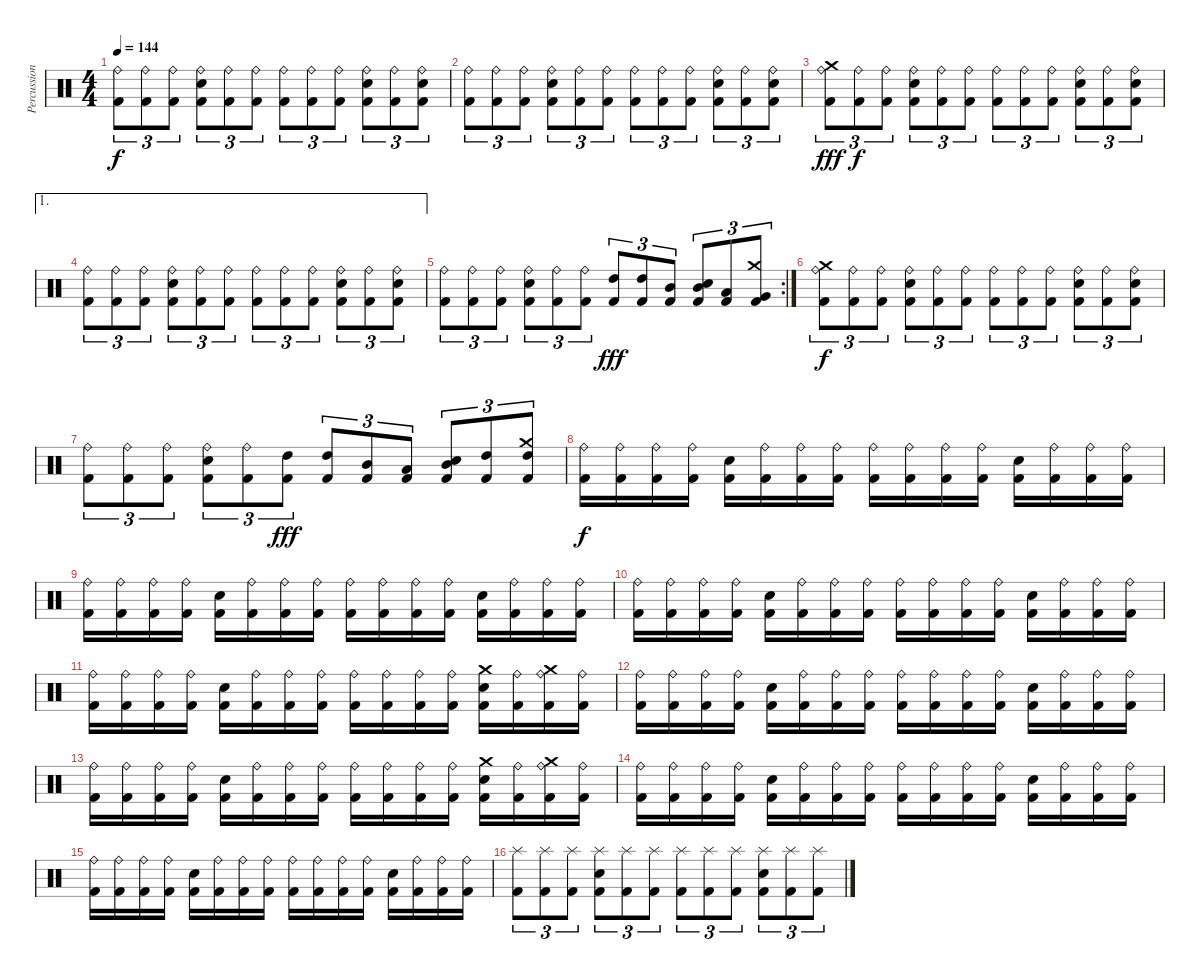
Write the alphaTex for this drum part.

\track ("Percussion -  Bard Faust" "Percussion") {instrument percussion}
\staff {score}
\articulation defaults
\ts (4 4)
\tempo 144
\clef neutral
\ks c
("Ride (bell)" "Kick (hit) 2").8{tu (3 2) dy f} ("Ride (bell)" "Kick (hit) 2").8{tu (3 2)} ("Ride (bell)" "Kick (hit) 2").8{tu (3 2)} ("Ride (bell)" "Electric Snare (hit)" "Kick (hit) 2").8{tu (3 2)} ("Ride (bell)" "Kick (hit) 2").8{tu (3 2)} ("Ride (bell)" "Kick (hit) 2").8{tu (3 2)} ("Ride (bell)" "Kick (hit) 2").8{tu (3 2)} ("Ride (bell)" "Kick (hit) 2").8{tu (3 2)} ("Ride (bell)" "Kick (hit) 2").8{tu (3 2)} ("Ride (bell)" "Electric Snare (hit)" "Kick (hit) 2").8{tu (3 2)} ("Ride (bell)" "Kick (hit) 2").8{tu (3 2)} ("Ride (bell)" "Electric Snare (hit)" "Kick (hit) 2").8{tu (3 2)} |
("Ride (bell)" "Kick (hit) 2").8{tu (3 2)} ("Ride (bell)" "Kick (hit) 2").8{tu (3 2)} ("Ride (bell)" "Kick (hit) 2").8{tu (3 2)} ("Ride (bell)" "Electric Snare (hit)" "Kick (hit) 2").8{tu (3 2)} ("Ride (bell)" "Kick (hit) 2").8{tu (3 2)} ("Ride (bell)" "Kick (hit) 2").8{tu (3 2)} ("Ride (bell)" "Kick (hit) 2").8{tu (3 2)} ("Ride (bell)" "Kick (hit) 2").8{tu (3 2)} ("Ride (bell)" "Kick (hit) 2").8{tu (3 2)} ("Ride (bell)" "Electric Snare (hit)" "Kick (hit) 2").8{tu (3 2)} ("Ride (bell)" "Kick (hit) 2").8{tu (3 2)} ("Ride (bell)" "Electric Snare (hit)" "Kick (hit) 2").8{tu (3 2)} |
("Ride (bell)" "Crash medium (hit)" "Kick (hit) 2").8{tu (3 2) dy fff} ("Ride (bell)" "Kick (hit) 2").8{tu (3 2) dy f} ("Ride (bell)" "Kick (hit) 2").8{tu (3 2)} ("Ride (bell)" "Electric Snare (hit)" "Kick (hit) 2").8{tu (3 2)} ("Ride (bell)" "Kick (hit) 2").8{tu (3 2)} ("Ride (bell)" "Kick (hit) 2").8{tu (3 2)} ("Ride (bell)" "Kick (hit) 2").8{tu (3 2)} ("Ride (bell)" "Kick (hit) 2").8{tu (3 2)} ("Ride (bell)" "Kick (hit) 2").8{tu (3 2)} ("Ride (bell)" "Electric Snare (hit)" "Kick (hit) 2").8{tu (3 2)} ("Ride (bell)" "Kick (hit) 2").8{tu (3 2)} ("Ride (bell)" "Electric Snare (hit)" "Kick (hit) 2").8{tu (3 2)} |
\ae 1
("Ride (bell)" "Kick (hit) 2").8{tu (3 2)} ("Ride (bell)" "Kick (hit) 2").8{tu (3 2)} ("Ride (bell)" "Kick (hit) 2").8{tu (3 2)} ("Ride (bell)" "Electric Snare (hit)" "Kick (hit) 2").8{tu (3 2)} ("Ride (bell)" "Kick (hit) 2").8{tu (3 2)} ("Ride (bell)" "Kick (hit) 2").8{tu (3 2)} ("Ride (bell)" "Kick (hit) 2").8{tu (3 2)} ("Ride (bell)" "Kick (hit) 2").8{tu (3 2)} ("Ride (bell)" "Kick (hit) 2").8{tu (3 2)} ("Ride (bell)" "Electric Snare (hit)" "Kick (hit) 2").8{tu (3 2)} ("Ride (bell)" "Kick (hit) 2").8{tu (3 2)} ("Ride (bell)" "Electric Snare (hit)" "Kick (hit) 2").8{tu (3 2)} |
\rc 2
("Ride (bell)" "Kick (hit) 2").8{tu (3 2)} ("Ride (bell)" "Kick (hit) 2").8{tu (3 2)} ("Ride (bell)" "Kick (hit) 2").8{tu (3 2)} ("Ride (bell)" "Electric Snare (hit)" "Kick (hit) 2").8{tu (3 2)} ("Ride (bell)" "Kick (hit) 2").8{tu (3 2)} ("Ride (bell)" "Kick (hit) 2").8{tu (3 2)} ("High Tom (hit)" "Kick (hit) 2").8{tu (3 2) dy fff} ("High Tom (hit)" "Kick (hit) 2").8{tu (3 2)} ("Mid Tom (hit)" "Kick (hit) 2").8{tu (3 2)} ("Mid Tom (hit)" "Electric Snare (hit)" "Kick (hit) 2").8{tu (3 2)} ("Low Tom (hit)" "Kick (hit) 2").8{tu (3 2)} ("Very Low Tom (hit)" "Crash medium (hit)" "Kick (hit) 2").8{tu (3 2)} |
("Ride (bell)" "Crash medium (hit)" "Kick (hit) 2").8{tu (3 2) dy f} ("Ride (bell)" "Kick (hit) 2").8{tu (3 2)} ("Ride (bell)" "Kick (hit) 2").8{tu (3 2)} ("Ride (bell)" "Electric Snare (hit)" "Kick (hit) 2").8{tu (3 2)} ("Ride (bell)" "Kick (hit) 2").8{tu (3 2)} ("Ride (bell)" "Kick (hit) 2").8{tu (3 2)} ("Ride (bell)" "Kick (hit) 2").8{tu (3 2)} ("Ride (bell)" "Kick (hit) 2").8{tu (3 2)} ("Ride (bell)" "Kick (hit) 2").8{tu (3 2)} ("Ride (bell)" "Electric Snare (hit)" "Kick (hit) 2").8{tu (3 2)} ("Ride (bell)" "Kick (hit) 2").8{tu (3 2)} ("Ride (bell)" "Electric Snare (hit)" "Kick (hit) 2").8{tu (3 2)} |
("Ride (bell)" "Kick (hit) 2").8{tu (3 2)} ("Ride (bell)" "Kick (hit) 2").8{tu (3 2)} ("Ride (bell)" "Kick (hit) 2").8{tu (3 2)} ("Ride (bell)" "Electric Snare (hit)" "Kick (hit) 2").8{tu (3 2)} ("Ride (bell)" "Kick (hit) 2").8{tu (3 2)} ("High Tom (hit)" "Kick (hit) 2").8{tu (3 2) dy fff} ("High Tom (hit)" "Kick (hit) 2").8{tu (3 2)} ("Mid Tom (hit)" "Kick (hit) 2").8{tu (3 2)} ("Low Tom (hit)" "Kick (hit) 2").8{tu (3 2)} ("Mid Tom (hit)" "Electric Snare (hit)" "Kick (hit) 2").8{tu (3 2)} ("High Tom (hit)" "Kick (hit) 2").8{tu (3 2)} ("High Tom (hit)" "Crash medium (hit)" "Kick (hit) 2").8{tu (3 2)} |
("Ride (bell)" "Kick (hit) 2").16{dy f} ("Ride (bell)" "Kick (hit) 2").16 ("Ride (bell)" "Kick (hit) 2").16 ("Ride (bell)" "Kick (hit) 2").16 ("Electric Snare (hit)" "Kick (hit) 2").16 ("Ride (bell)" "Kick (hit) 2").16 ("Ride (bell)" "Kick (hit) 2").16 ("Ride (bell)" "Kick (hit) 2").16 ("Ride (bell)" "Kick (hit) 2").16 ("Ride (bell)" "Kick (hit) 2").16 ("Ride (bell)" "Kick (hit) 2").16 ("Ride (bell)" "Kick (hit) 2").16 ("Electric Snare (hit)" "Kick (hit) 2").16 ("Ride (bell)" "Kick (hit) 2").16 ("Ride (bell)" "Kick (hit) 2").16 ("Ride (bell)" "Kick (hit) 2").16 |
("Ride (bell)" "Kick (hit) 2").16 ("Ride (bell)" "Kick (hit) 2").16 ("Ride (bell)" "Kick (hit) 2").16 ("Ride (bell)" "Kick (hit) 2").16 ("Electric Snare (hit)" "Kick (hit) 2").16 ("Ride (bell)" "Kick (hit) 2").16 ("Ride (bell)" "Kick (hit) 2").16 ("Ride (bell)" "Kick (hit) 2").16 ("Ride (bell)" "Kick (hit) 2").16 ("Ride (bell)" "Kick (hit) 2").16 ("Ride (bell)" "Kick (hit) 2").16 ("Ride (bell)" "Kick (hit) 2").16 ("Electric Snare (hit)" "Kick (hit) 2").16 ("Ride (bell)" "Kick (hit) 2").16 ("Ride (bell)" "Kick (hit) 2").16 ("Ride (bell)" "Kick (hit) 2").16 |
("Ride (bell)" "Kick (hit) 2").16 ("Ride (bell)" "Kick (hit) 2").16 ("Ride (bell)" "Kick (hit) 2").16 ("Ride (bell)" "Kick (hit) 2").16 ("Electric Snare (hit)" "Kick (hit) 2").16 ("Ride (bell)" "Kick (hit) 2").16 ("Ride (bell)" "Kick (hit) 2").16 ("Ride (bell)" "Kick (hit) 2").16 ("Ride (bell)" "Kick (hit) 2").16 ("Ride (bell)" "Kick (hit) 2").16 ("Ride (bell)" "Kick (hit) 2").16 ("Ride (bell)" "Kick (hit) 2").16 ("Electric Snare (hit)" "Kick (hit) 2").16 ("Ride (bell)" "Kick (hit) 2").16 ("Ride (bell)" "Kick (hit) 2").16 ("Ride (bell)" "Kick (hit) 2").16 |
("Ride (bell)" "Kick (hit) 2").16 ("Ride (bell)" "Kick (hit) 2").16 ("Ride (bell)" "Kick (hit) 2").16 ("Ride (bell)" "Kick (hit) 2").16 ("Electric Snare (hit)" "Kick (hit) 2").16 ("Ride (bell)" "Kick (hit) 2").16 ("Ride (bell)" "Kick (hit) 2").16 ("Ride (bell)" "Kick (hit) 2").16 ("Ride (bell)" "Kick (hit) 2").16 ("Ride (bell)" "Kick (hit) 2").16 ("Ride (bell)" "Kick (hit) 2").16 ("Ride (bell)" "Kick (hit) 2").16 ("Electric Snare (hit)" "Crash medium (hit)" "Kick (hit) 2").16 ("Ride (bell)" "Kick (hit) 2").16 ("Ride (bell)" "Crash medium (hit)" "Kick (hit) 2").16 ("Ride (bell)" "Kick (hit) 2").16 |
("Ride (bell)" "Kick (hit) 2").16 ("Ride (bell)" "Kick (hit) 2").16 ("Ride (bell)" "Kick (hit) 2").16 ("Ride (bell)" "Kick (hit) 2").16 ("Electric Snare (hit)" "Kick (hit) 2").16 ("Ride (bell)" "Kick (hit) 2").16 ("Ride (bell)" "Kick (hit) 2").16 ("Ride (bell)" "Kick (hit) 2").16 ("Ride (bell)" "Kick (hit) 2").16 ("Ride (bell)" "Kick (hit) 2").16 ("Ride (bell)" "Kick (hit) 2").16 ("Ride (bell)" "Kick (hit) 2").16 ("Electric Snare (hit)" "Kick (hit) 2").16 ("Ride (bell)" "Kick (hit) 2").16 ("Ride (bell)" "Kick (hit) 2").16 ("Ride (bell)" "Kick (hit) 2").16 |
("Ride (bell)" "Kick (hit) 2").16 ("Ride (bell)" "Kick (hit) 2").16 ("Ride (bell)" "Kick (hit) 2").16 ("Ride (bell)" "Kick (hit) 2").16 ("Electric Snare (hit)" "Kick (hit) 2").16 ("Ride (bell)" "Kick (hit) 2").16 ("Ride (bell)" "Kick (hit) 2").16 ("Ride (bell)" "Kick (hit) 2").16 ("Ride (bell)" "Kick (hit) 2").16 ("Ride (bell)" "Kick (hit) 2").16 ("Ride (bell)" "Kick (hit) 2").16 ("Ride (bell)" "Kick (hit) 2").16 ("Electric Snare (hit)" "Crash medium (hit)" "Kick (hit) 2").16 ("Ride (bell)" "Kick (hit) 2").16 ("Ride (bell)" "Crash medium (hit)" "Kick (hit) 2").16 ("Ride (bell)" "Kick (hit) 2").16 |
("Ride (bell)" "Kick (hit) 2").16 ("Ride (bell)" "Kick (hit) 2").16 ("Ride (bell)" "Kick (hit) 2").16 ("Ride (bell)" "Kick (hit) 2").16 ("Electric Snare (hit)" "Kick (hit) 2").16 ("Ride (bell)" "Kick (hit) 2").16 ("Ride (bell)" "Kick (hit) 2").16 ("Ride (bell)" "Kick (hit) 2").16 ("Ride (bell)" "Kick (hit) 2").16 ("Ride (bell)" "Kick (hit) 2").16 ("Ride (bell)" "Kick (hit) 2").16 ("Ride (bell)" "Kick (hit) 2").16 ("Electric Snare (hit)" "Kick (hit) 2").16 ("Ride (bell)" "Kick (hit) 2").16 ("Ride (bell)" "Kick (hit) 2").16 ("Ride (bell)" "Kick (hit) 2").16 |
("Ride (bell)" "Kick (hit) 2").16 ("Ride (bell)" "Kick (hit) 2").16 ("Ride (bell)" "Kick (hit) 2").16 ("Ride (bell)" "Kick (hit) 2").16 ("Electric Snare (hit)" "Kick (hit) 2").16 ("Ride (bell)" "Kick (hit) 2").16 ("Ride (bell)" "Kick (hit) 2").16 ("Ride (bell)" "Kick (hit) 2").16 ("Ride (bell)" "Kick (hit) 2").16 ("Ride (bell)" "Kick (hit) 2").16 ("Ride (bell)" "Kick (hit) 2").16 ("Ride (bell)" "Kick (hit) 2").16 ("Electric Snare (hit)" "Kick (hit) 2").16 ("Ride (bell)" "Kick (hit) 2").16 ("Ride (bell)" "Kick (hit) 2").16 ("Ride (bell)" "Kick (hit) 2").16 |
("Splash (hit)" "Kick (hit) 2").8{tu (3 2)} ("Splash (hit)" "Kick (hit) 2").8{tu (3 2)} ("Splash (hit)" "Kick (hit) 2").8{tu (3 2)} ("Splash (hit)" "Electric Snare (hit)" "Kick (hit) 2").8{tu (3 2)} ("Splash (hit)" "Kick (hit) 2").8{tu (3 2)} ("Splash (hit)" "Kick (hit) 2").8{tu (3 2)} ("Splash (hit)" "Kick (hit) 2").8{tu (3 2)} ("Splash (hit)" "Kick (hit) 2").8{tu (3 2)} ("Splash (hit)" "Kick (hit) 2").8{tu (3 2)} ("Splash (hit)" "Electric Snare (hit)" "Kick (hit) 2").8{tu (3 2)} ("Splash (hit)" "Kick (hit) 2").8{tu (3 2)} ("Splash (hit)" "Kick (hit) 2").8{tu (3 2)}
